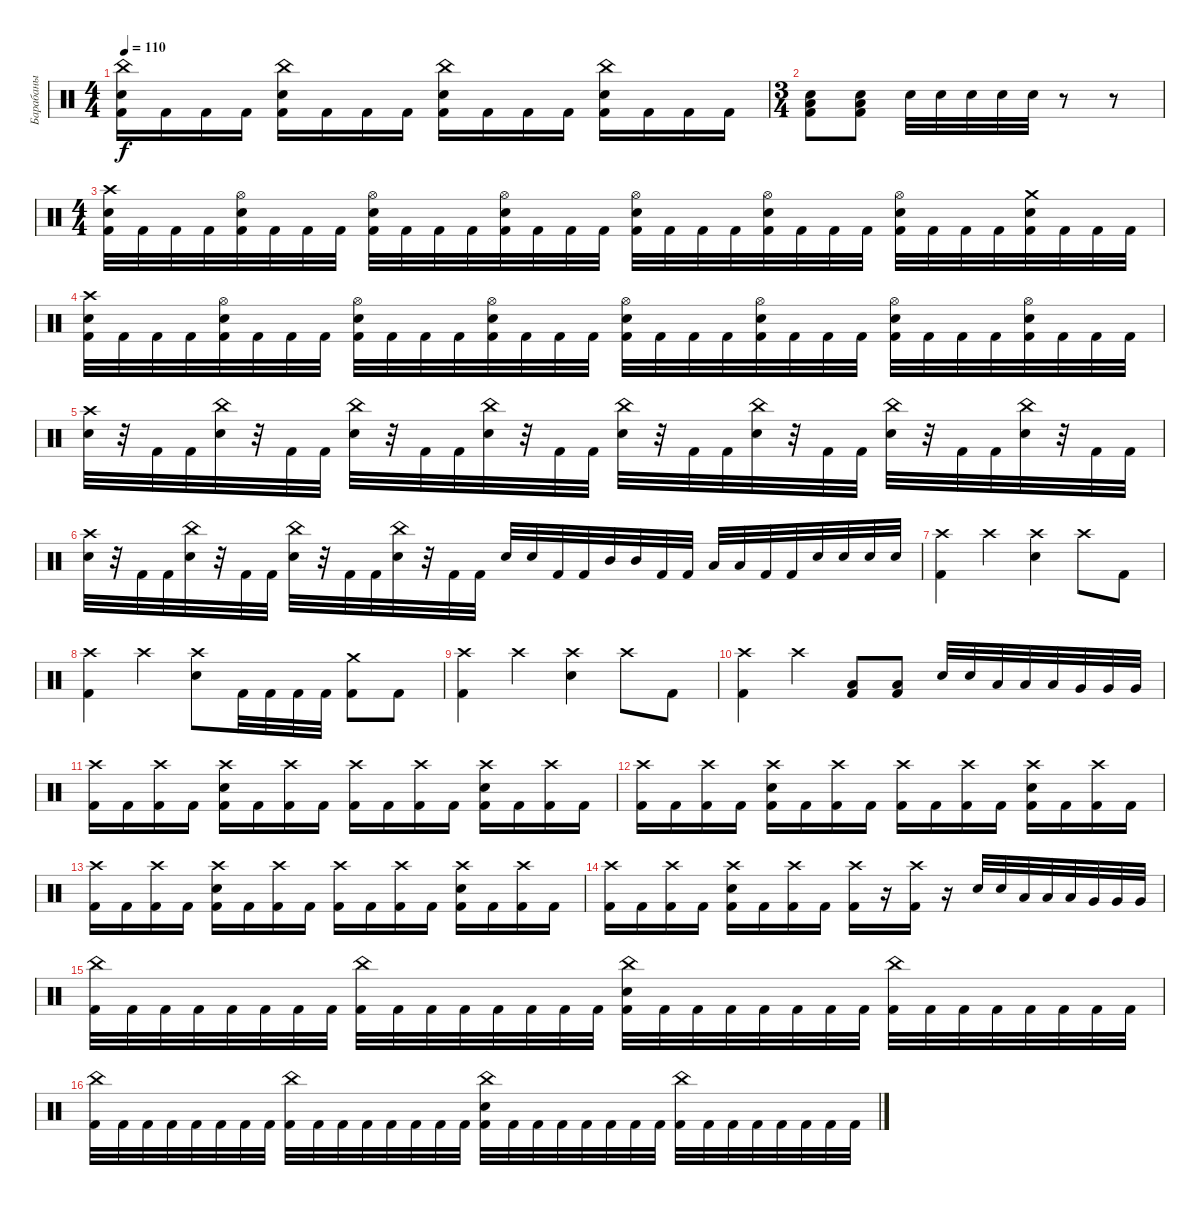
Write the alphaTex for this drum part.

\track ("Барабаны" "Барабаны") {instrument percussion}
\staff {score}
\articulation defaults
\ts (4 4)
\tempo 110
\clef neutral
\ks c
("China (hit)" "Electric Snare (hit)" "Kick (hit) 2").16{dy f} "Kick (hit) 2".16 "Kick (hit) 2".16 "Kick (hit) 2".16 ("China (hit)" "Electric Snare (hit)" "Kick (hit) 2").16 "Kick (hit) 2".16 "Kick (hit) 2".16 "Kick (hit) 2".16 ("China (hit)" "Electric Snare (hit)" "Kick (hit) 2").16 "Kick (hit) 2".16 "Kick (hit) 2".16 "Kick (hit) 2".16 ("China (hit)" "Electric Snare (hit)" "Kick (hit) 2").16 "Kick (hit) 2".16 "Kick (hit) 2".16 "Kick (hit) 2".16 |
\ts (3 4)
("Low Floor Tom (hit)" "Electric Snare (hit)" "Kick (hit) 2").8 ("Low Floor Tom (hit)" "Electric Snare (hit)" "Kick (hit) 2").8 "Electric Snare (hit)".32 "Electric Snare (hit)".32 "Electric Snare (hit)".32 "Electric Snare (hit)".32 "Electric Snare (hit)".32 r.8 r.8 |
\ts (4 4)
("Crash high (hit)" "Electric Snare (hit)" "Kick (hit) 2").32 "Kick (hit) 2".32 "Kick (hit) 2".32 "Kick (hit) 2".32 ("Hi-Hat (open)" "Electric Snare (hit)" "Kick (hit) 2").32 "Kick (hit) 2".32 "Kick (hit) 2".32 "Kick (hit) 2".32 ("Hi-Hat (open)" "Electric Snare (hit)" "Kick (hit) 2").32 "Kick (hit) 2".32 "Kick (hit) 2".32 "Kick (hit) 2".32 ("Hi-Hat (open)" "Electric Snare (hit)" "Kick (hit) 2").32 "Kick (hit) 2".32 "Kick (hit) 2".32 "Kick (hit) 2".32 ("Hi-Hat (open)" "Electric Snare (hit)" "Kick (hit) 2").32 "Kick (hit) 2".32 "Kick (hit) 2".32 "Kick (hit) 2".32 ("Hi-Hat (open)" "Electric Snare (hit)" "Kick (hit) 2").32 "Kick (hit) 2".32 "Kick (hit) 2".32 "Kick (hit) 2".32 ("Hi-Hat (open)" "Electric Snare (hit)" "Kick (hit) 2").32 "Kick (hit) 2".32 "Kick (hit) 2".32 "Kick (hit) 2".32 ("Crash medium (hit)" "Electric Snare (hit)" "Kick (hit) 2").32 "Kick (hit) 2".32 "Kick (hit) 2".32 "Kick (hit) 2".32 |
("Crash high (hit)" "Electric Snare (hit)" "Kick (hit) 2").32 "Kick (hit) 2".32 "Kick (hit) 2".32 "Kick (hit) 2".32 ("Hi-Hat (open)" "Electric Snare (hit)" "Kick (hit) 2").32 "Kick (hit) 2".32 "Kick (hit) 2".32 "Kick (hit) 2".32 ("Hi-Hat (open)" "Electric Snare (hit)" "Kick (hit) 2").32 "Kick (hit) 2".32 "Kick (hit) 2".32 "Kick (hit) 2".32 ("Hi-Hat (open)" "Electric Snare (hit)" "Kick (hit) 2").32 "Kick (hit) 2".32 "Kick (hit) 2".32 "Kick (hit) 2".32 ("Hi-Hat (open)" "Electric Snare (hit)" "Kick (hit) 2").32 "Kick (hit) 2".32 "Kick (hit) 2".32 "Kick (hit) 2".32 ("Hi-Hat (open)" "Electric Snare (hit)" "Kick (hit) 2").32 "Kick (hit) 2".32 "Kick (hit) 2".32 "Kick (hit) 2".32 ("Hi-Hat (open)" "Electric Snare (hit)" "Kick (hit) 2").32 "Kick (hit) 2".32 "Kick (hit) 2".32 "Kick (hit) 2".32 ("Hi-Hat (open)" "Electric Snare (hit)" "Kick (hit) 2").32 "Kick (hit) 2".32 "Kick (hit) 2".32 "Kick (hit) 2".32 |
("Crash high (hit)" "Electric Snare (hit)").32 r.32 "Kick (hit) 2".32 "Kick (hit) 2".32 ("China (hit)" "Electric Snare (hit)").32 r.32 "Kick (hit) 2".32 "Kick (hit) 2".32 ("China (hit)" "Electric Snare (hit)").32 r.32 "Kick (hit) 2".32 "Kick (hit) 2".32 ("China (hit)" "Electric Snare (hit)").32 r.32 "Kick (hit) 2".32 "Kick (hit) 2".32 ("China (hit)" "Electric Snare (hit)").32 r.32 "Kick (hit) 2".32 "Kick (hit) 2".32 ("China (hit)" "Electric Snare (hit)").32 r.32 "Kick (hit) 2".32 "Kick (hit) 2".32 ("China (hit)" "Electric Snare (hit)").32 r.32 "Kick (hit) 2".32 "Kick (hit) 2".32 ("China (hit)" "Electric Snare (hit)").32 r.32 "Kick (hit) 2".32 "Kick (hit) 2".32 |
("Crash high (hit)" "Electric Snare (hit)").32 r.32 "Kick (hit) 2".32 "Kick (hit) 2".32 ("China (hit)" "Electric Snare (hit)").32 r.32 "Kick (hit) 2".32 "Kick (hit) 2".32 ("China (hit)" "Electric Snare (hit)").32 r.32 "Kick (hit) 2".32 "Kick (hit) 2".32 ("China (hit)" "Electric Snare (hit)").32 r.32 "Kick (hit) 2".32 "Kick (hit) 2".32 "Electric Snare (hit)".32 "Electric Snare (hit)".32 "Kick (hit) 2".32 "Kick (hit) 2".32 "Mid Tom (hit)".32 "Mid Tom (hit)".32 "Kick (hit) 2".32 "Kick (hit) 2".32 "Low Tom (hit)".32 "Low Tom (hit)".32 "Kick (hit) 2".32 "Kick (hit) 2".32 "Electric Snare (hit)".32 "Electric Snare (hit)".32 "Electric Snare (hit)".32 "Electric Snare (hit)".32 |
("Crash high (hit)" "Kick (hit) 2").4 "Crash high (hit)".4 ("Crash high (hit)" "Electric Snare (hit)").4 "Crash high (hit)".8 "Kick (hit) 2".8 |
("Crash high (hit)" "Kick (hit) 2").4 "Crash high (hit)".4 ("Crash high (hit)" "Electric Snare (hit)").8 "Kick (hit) 2".32 "Kick (hit) 2".32 "Kick (hit) 2".32 "Kick (hit) 2".32 ("Crash medium (hit)" "Kick (hit) 2").8 "Kick (hit) 2".8 |
("Crash high (hit)" "Kick (hit) 2").4 "Crash high (hit)".4 ("Crash high (hit)" "Electric Snare (hit)").4 "Crash high (hit)".8 "Kick (hit) 2".8 |
("Crash high (hit)" "Kick (hit) 2").4 "Crash high (hit)".4 ("Low Floor Tom (hit)" "Kick (hit) 2").8 ("Low Floor Tom (hit)" "Kick (hit) 2").8 "Electric Snare (hit)".32 "Electric Snare (hit)".32 "Low Tom (hit)".32 "Low Tom (hit)".32 "Low Tom (hit)".32 "Very Low Tom (hit)".32 "Very Low Tom (hit)".32 "Very Low Tom (hit)".32 |
("Crash high (hit)" "Kick (hit) 2").16 "Kick (hit) 2".16 ("Crash high (hit)" "Kick (hit) 2").16 "Kick (hit) 2".16 ("Crash high (hit)" "Electric Snare (hit)" "Kick (hit) 2").16 "Kick (hit) 2".16 ("Crash high (hit)" "Kick (hit) 2").16 "Kick (hit) 2".16 ("Crash high (hit)" "Kick (hit) 2").16 "Kick (hit) 2".16 ("Crash high (hit)" "Kick (hit) 2").16 "Kick (hit) 2".16 ("Crash high (hit)" "Electric Snare (hit)" "Kick (hit) 2").16 "Kick (hit) 2".16 ("Crash high (hit)" "Kick (hit) 2").16 "Kick (hit) 2".16 |
("Crash high (hit)" "Kick (hit) 2").16 "Kick (hit) 2".16 ("Crash high (hit)" "Kick (hit) 2").16 "Kick (hit) 2".16 ("Crash high (hit)" "Electric Snare (hit)" "Kick (hit) 2").16 "Kick (hit) 2".16 ("Crash high (hit)" "Kick (hit) 2").16 "Kick (hit) 2".16 ("Crash high (hit)" "Kick (hit) 2").16 "Kick (hit) 2".16 ("Crash high (hit)" "Kick (hit) 2").16 "Kick (hit) 2".16 ("Crash high (hit)" "Electric Snare (hit)" "Kick (hit) 2").16 "Kick (hit) 2".16 ("Crash high (hit)" "Kick (hit) 2").16 "Kick (hit) 2".16 |
("Crash high (hit)" "Kick (hit) 2").16 "Kick (hit) 2".16 ("Crash high (hit)" "Kick (hit) 2").16 "Kick (hit) 2".16 ("Crash high (hit)" "Electric Snare (hit)" "Kick (hit) 2").16 "Kick (hit) 2".16 ("Crash high (hit)" "Kick (hit) 2").16 "Kick (hit) 2".16 ("Crash high (hit)" "Kick (hit) 2").16 "Kick (hit) 2".16 ("Crash high (hit)" "Kick (hit) 2").16 "Kick (hit) 2".16 ("Crash high (hit)" "Electric Snare (hit)" "Kick (hit) 2").16 "Kick (hit) 2".16 ("Crash high (hit)" "Kick (hit) 2").16 "Kick (hit) 2".16 |
("Crash high (hit)" "Kick (hit) 2").16 "Kick (hit) 2".16 ("Crash high (hit)" "Kick (hit) 2").16 "Kick (hit) 2".16 ("Crash high (hit)" "Electric Snare (hit)" "Kick (hit) 2").16 "Kick (hit) 2".16 ("Crash high (hit)" "Kick (hit) 2").16 "Kick (hit) 2".16 ("Crash high (hit)" "Kick (hit) 2").16 r.16 ("Crash high (hit)" "Kick (hit) 2").16 r.16 "Electric Snare (hit)".32 "Electric Snare (hit)".32 "Low Tom (hit)".32 "Low Tom (hit)".32 "Low Tom (hit)".32 "Very Low Tom (hit)".32 "Very Low Tom (hit)".32 "Very Low Tom (hit)".32 |
("China (hit)" "Kick (hit) 2").32 "Kick (hit) 2".32 "Kick (hit) 2".32 "Kick (hit) 2".32 "Kick (hit) 2".32 "Kick (hit) 2".32 "Kick (hit) 2".32 "Kick (hit) 2".32 ("China (hit)" "Kick (hit) 2").32 "Kick (hit) 2".32 "Kick (hit) 2".32 "Kick (hit) 2".32 "Kick (hit) 2".32 "Kick (hit) 2".32 "Kick (hit) 2".32 "Kick (hit) 2".32 ("China (hit)" "Electric Snare (hit)" "Kick (hit) 2").32 "Kick (hit) 2".32 "Kick (hit) 2".32 "Kick (hit) 2".32 "Kick (hit) 2".32 "Kick (hit) 2".32 "Kick (hit) 2".32 "Kick (hit) 2".32 ("China (hit)" "Kick (hit) 2").32 "Kick (hit) 2".32 "Kick (hit) 2".32 "Kick (hit) 2".32 "Kick (hit) 2".32 "Kick (hit) 2".32 "Kick (hit) 2".32 "Kick (hit) 2".32 |
("China (hit)" "Kick (hit) 2").32 "Kick (hit) 2".32 "Kick (hit) 2".32 "Kick (hit) 2".32 "Kick (hit) 2".32 "Kick (hit) 2".32 "Kick (hit) 2".32 "Kick (hit) 2".32 ("China (hit)" "Kick (hit) 2").32 "Kick (hit) 2".32 "Kick (hit) 2".32 "Kick (hit) 2".32 "Kick (hit) 2".32 "Kick (hit) 2".32 "Kick (hit) 2".32 "Kick (hit) 2".32 ("China (hit)" "Electric Snare (hit)" "Kick (hit) 2").32 "Kick (hit) 2".32 "Kick (hit) 2".32 "Kick (hit) 2".32 "Kick (hit) 2".32 "Kick (hit) 2".32 "Kick (hit) 2".32 "Kick (hit) 2".32 ("China (hit)" "Kick (hit) 2").32 "Kick (hit) 2".32 "Kick (hit) 2".32 "Kick (hit) 2".32 "Kick (hit) 2".32 "Kick (hit) 2".32 "Kick (hit) 2".32 "Kick (hit) 2".32
